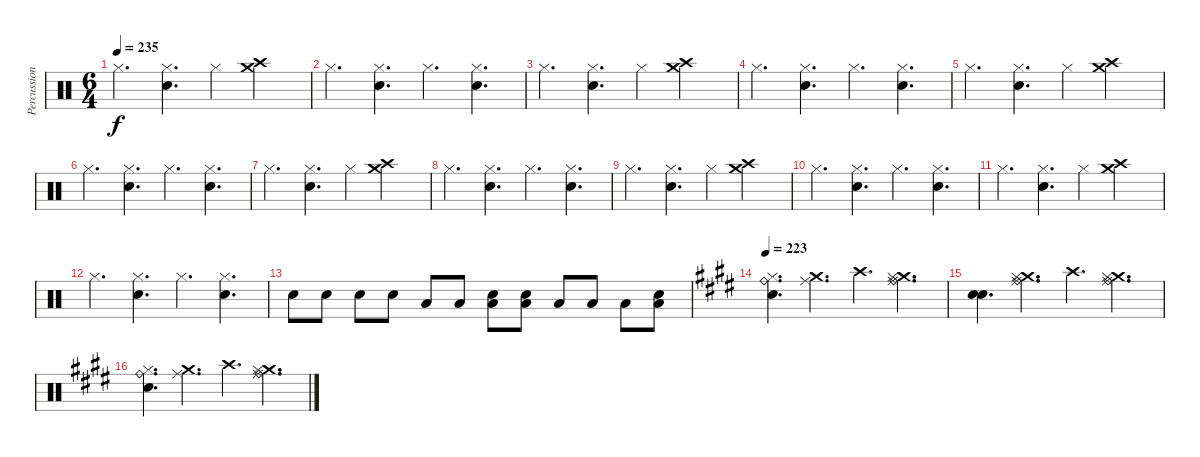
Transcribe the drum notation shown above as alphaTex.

\track ("Percussion" "Percussion") {instrument percussion}
\staff {score}
\articulation defaults
\ts (6 4)
\tempo 235
\clef neutral
\ks c "Hi-Hat (closed)".4{d dy f}
("Hi-Hat (closed)" "Snare (hit) 2").4{d} "Hi-Hat (closed)".4 ("Crash high (hit)" "Crash medium (hit)").2 |
"Hi-Hat (closed)".4{d} ("Hi-Hat (closed)" "Snare (hit) 2").4{d} "Hi-Hat (closed)".4{d} ("Hi-Hat (closed)" "Snare (hit) 2").4{d} |
"Hi-Hat (closed)".4{d} ("Hi-Hat (closed)" "Snare (hit) 2").4{d} "Hi-Hat (closed)".4 ("Crash high (hit)" "Crash medium (hit)").2 |
"Hi-Hat (closed)".4{d} ("Hi-Hat (closed)" "Snare (hit) 2").4{d} "Hi-Hat (closed)".4{d} ("Hi-Hat (closed)" "Snare (hit) 2").4{d} |
"Hi-Hat (closed)".4{d} ("Hi-Hat (closed)" "Snare (hit) 2").4{d} "Hi-Hat (closed)".4 ("Crash high (hit)" "Crash medium (hit)").2 |
"Hi-Hat (closed)".4{d} ("Hi-Hat (closed)" "Snare (hit) 2").4{d} "Hi-Hat (closed)".4{d} ("Hi-Hat (closed)" "Snare (hit) 2").4{d} |
"Hi-Hat (closed)".4{d} ("Hi-Hat (closed)" "Snare (hit) 2").4{d} "Hi-Hat (closed)".4 ("Crash high (hit)" "Crash medium (hit)").2 |
"Hi-Hat (closed)".4{d} ("Hi-Hat (closed)" "Snare (hit) 2").4{d} "Hi-Hat (closed)".4{d} ("Hi-Hat (closed)" "Snare (hit) 2").4{d} |
"Hi-Hat (closed)".4{d} ("Hi-Hat (closed)" "Snare (hit) 2").4{d} "Hi-Hat (closed)".4 ("Crash high (hit)" "Crash medium (hit)").2 |
"Hi-Hat (closed)".4{d} ("Hi-Hat (closed)" "Snare (hit) 2").4{d} "Hi-Hat (closed)".4{d} ("Hi-Hat (closed)" "Snare (hit) 2").4{d} |
"Hi-Hat (closed)".4{d} ("Hi-Hat (closed)" "Snare (hit) 2").4{d} "Hi-Hat (closed)".4 ("Crash high (hit)" "Crash medium (hit)").2 |
"Hi-Hat (closed)".4{d} ("Hi-Hat (closed)" "Snare (hit) 2").4{d} "Hi-Hat (closed)".4{d} ("Hi-Hat (closed)" "Snare (hit) 2").4{d} |
"Snare (hit) 2".8 "Snare (hit) 2".8 "Snare (hit) 2".8 "Snare (hit) 2".8 "Low Tom (hit)".8 "Low Tom (hit)".8 ("Low Tom (hit)" "Snare (hit) 2").8 ("Low Tom (hit)" "Snare (hit) 2").8 "Low Tom (hit)".8 "Low Tom (hit)".8 "Low Tom (hit)".8 ("Low Tom (hit)" "Snare (hit) 2").8 |
\tempo 223
\ks e
("Hi-Hat (closed)" "Snare (hit) 2" "Ride (bell)").4{d} ("Ride (middle)" "Crash medium (hit)").4{d} "Crash high (hit)".4{d} ("Ride (middle)" "Crash medium (hit)" "Hi-Hat (closed)" "Ride (bell)").4{d} |
("Snare (hit) 2" "Snare (hit) 2").4{d} ("Ride (middle)" "Crash medium (hit)" "Hi-Hat (closed)" "Ride (bell)").4{d} "Crash high (hit)".4{d} ("Ride (middle)" "Crash medium (hit)" "Hi-Hat (closed)" "Ride (bell)").4{d} |
("Hi-Hat (closed)" "Snare (hit) 2" "Ride (bell)").4{d} ("Ride (middle)" "Crash medium (hit)").4{d} "Crash high (hit)".4{d} ("Ride (middle)" "Crash medium (hit)" "Hi-Hat (closed)" "Ride (bell)").4{d}
